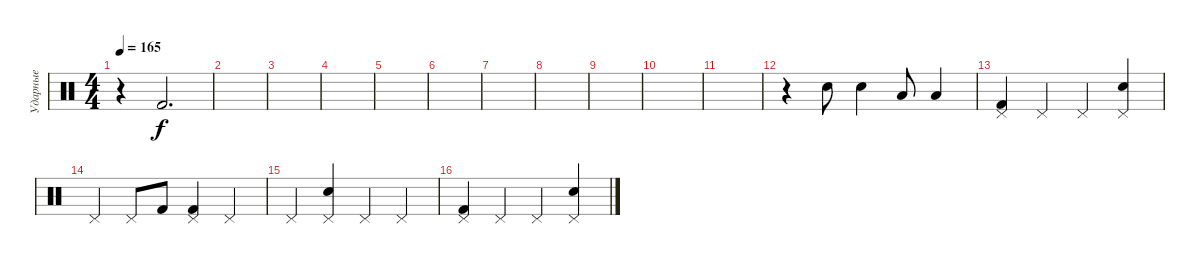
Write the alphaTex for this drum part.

\track ("Ударные" "Ударные") {instrument percussion}
\staff {score}
\articulation defaults
\ts (4 4)
\tempo 165
\clef neutral
\ks c
r.4{dy f} "Kick (hit) 2".2{d} |
|
|
|
|
|
|
|
|
|
|
r.4 "Snare (hit) 2".8 "Snare (hit) 2".4 "Low Tom (hit)".8 "Low Tom (hit)".4 |
("Pedal Hi-Hat (hit)" "Kick (hit) 2").4 "Pedal Hi-Hat (hit)".4 "Pedal Hi-Hat (hit)".4 ("Pedal Hi-Hat (hit)" "Snare (hit) 2").4 |
"Pedal Hi-Hat (hit)".4 "Pedal Hi-Hat (hit)".8 "Kick (hit) 2".8 ("Pedal Hi-Hat (hit)" "Kick (hit) 2").4 "Pedal Hi-Hat (hit)".4 |
"Pedal Hi-Hat (hit)".4 ("Pedal Hi-Hat (hit)" "Snare (hit) 2").4 "Pedal Hi-Hat (hit)".4 "Pedal Hi-Hat (hit)".4 |
("Pedal Hi-Hat (hit)" "Kick (hit) 2").4 "Pedal Hi-Hat (hit)".4 "Pedal Hi-Hat (hit)".4 ("Pedal Hi-Hat (hit)" "Snare (hit) 2").4
